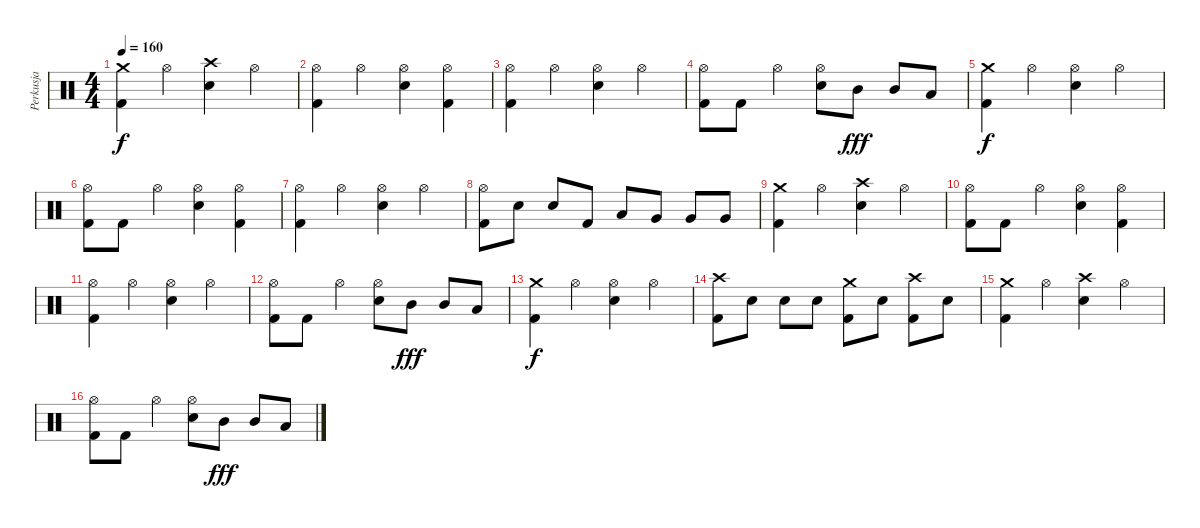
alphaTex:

\track ("Perkusja" "Perkusja") {instrument percussion}
\staff {score}
\articulation defaults
\ts (4 4)
\tempo 160
\clef neutral
\ks c
("Crash medium (hit)" "Kick (hit) 2").4{dy f} "Hi-Hat (open)".4 ("Crash high (hit)" "Snare (hit) 2").4 "Hi-Hat (open)".4 |
("Hi-Hat (open)" "Kick (hit) 2").4 "Hi-Hat (open)".4 ("Hi-Hat (open)" "Snare (hit) 2").4 ("Hi-Hat (open)" "Kick (hit) 2").4 |
("Hi-Hat (open)" "Kick (hit) 2").4 "Hi-Hat (open)".4 ("Hi-Hat (open)" "Snare (hit) 2").4 "Hi-Hat (open)".4 |
("Hi-Hat (open)" "Kick (hit) 2").8 "Kick (hit) 2".8 "Hi-Hat (open)".4 ("Hi-Hat (open)" "Snare (hit) 2").8 "Mid Tom (hit)".8{dy fff} "Mid Tom (hit)".8 "Low Tom (hit)".8 |
("Crash medium (hit)" "Kick (hit) 2").4{dy f} "Hi-Hat (open)".4 ("Hi-Hat (open)" "Snare (hit) 2").4 "Hi-Hat (open)".4 |
("Hi-Hat (open)" "Kick (hit) 2").8 "Kick (hit) 2".8 "Hi-Hat (open)".4 ("Hi-Hat (open)" "Snare (hit) 2").4 ("Hi-Hat (open)" "Kick (hit) 2").4 |
("Hi-Hat (open)" "Kick (hit) 2").4 "Hi-Hat (open)".4 ("Hi-Hat (open)" "Snare (hit) 2").4 "Hi-Hat (open)".4 |
("Hi-Hat (open)" "Kick (hit) 2").8 "Snare (hit) 2".8 "Snare (hit) 2".8 "Kick (hit) 2".8 "Low Tom (hit)".8 "Very Low Tom (hit)".8 "Very Low Tom (hit)".8 "Very Low Tom (hit)".8 |
("Crash medium (hit)" "Kick (hit) 2").4 "Hi-Hat (open)".4 ("Crash high (hit)" "Snare (hit) 2").4 "Hi-Hat (open)".4 |
("Hi-Hat (open)" "Kick (hit) 2").8 "Kick (hit) 2".8 "Hi-Hat (open)".4 ("Hi-Hat (open)" "Snare (hit) 2").4 ("Hi-Hat (open)" "Kick (hit) 2").4 |
("Hi-Hat (open)" "Kick (hit) 2").4 "Hi-Hat (open)".4 ("Hi-Hat (open)" "Snare (hit) 2").4 "Hi-Hat (open)".4 |
("Hi-Hat (open)" "Kick (hit) 2").8 "Kick (hit) 2".8 "Hi-Hat (open)".4 ("Hi-Hat (open)" "Snare (hit) 2").8 "Mid Tom (hit)".8{dy fff} "Mid Tom (hit)".8 "Low Tom (hit)".8 |
("Crash medium (hit)" "Kick (hit) 2").4{dy f} "Hi-Hat (open)".4 ("Hi-Hat (open)" "Snare (hit) 2").4 "Hi-Hat (open)".4 |
("Crash high (hit)" "Kick (hit) 2").8 "Snare (hit) 2".8 "Snare (hit) 2".8 "Snare (hit) 2".8 ("Crash medium (hit)" "Kick (hit) 2").8 "Snare (hit) 2".8 ("Crash high (hit)" "Kick (hit) 2").8 "Snare (hit) 2".8 |
("Crash medium (hit)" "Kick (hit) 2").4 "Hi-Hat (open)".4 ("Crash high (hit)" "Snare (hit) 2").4 "Hi-Hat (open)".4 |
("Hi-Hat (open)" "Kick (hit) 2").8 "Kick (hit) 2".8 "Hi-Hat (open)".4 ("Hi-Hat (open)" "Snare (hit) 2").8 "Mid Tom (hit)".8{dy fff} "Mid Tom (hit)".8 "Low Tom (hit)".8
